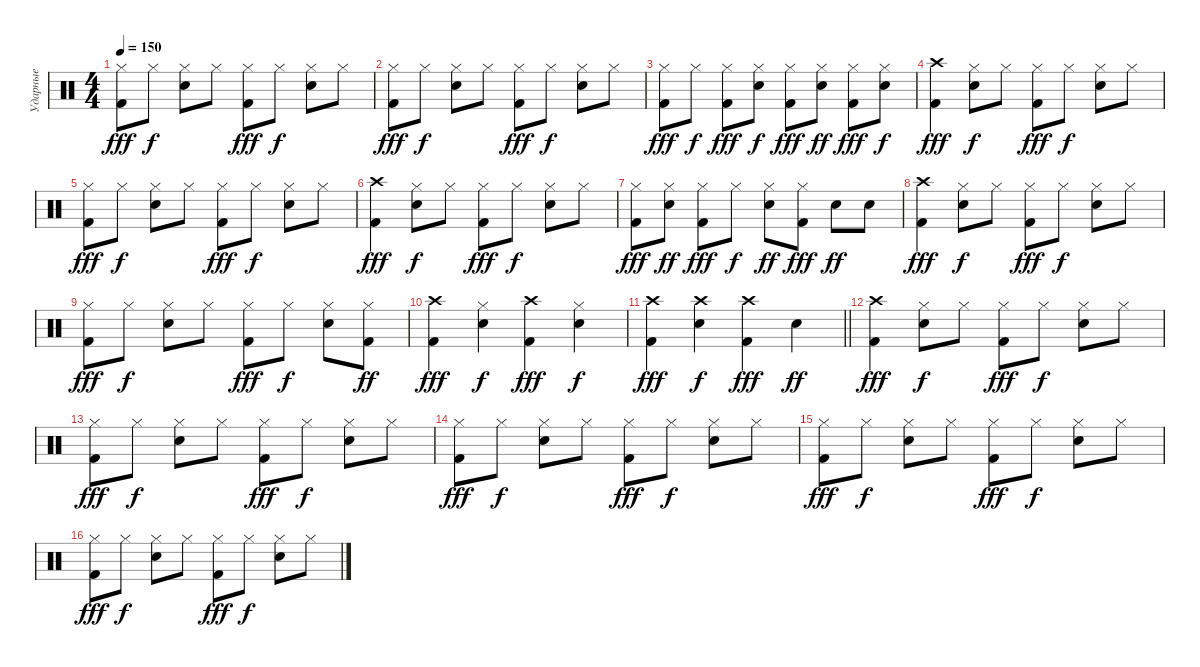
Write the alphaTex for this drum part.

\track ("Ударные" "Ударные") {instrument percussion}
\staff
\articulation defaults
\ts (4 4)
\tempo 150
\clef neutral
\ks c
("Kick (hit) 2" "Hi-Hat (closed)").8{dy fff} "Hi-Hat (closed)".8{dy f} ("Snare (hit) 2" "Hi-Hat (closed)").8 "Hi-Hat (closed)".8 ("Kick (hit) 2" "Hi-Hat (closed)").8{dy fff} "Hi-Hat (closed)".8{dy f} ("Snare (hit) 2" "Hi-Hat (closed)").8 "Hi-Hat (closed)".8 |
("Kick (hit) 2" "Hi-Hat (closed)").8{dy fff} "Hi-Hat (closed)".8{dy f} ("Snare (hit) 2" "Hi-Hat (closed)").8 "Hi-Hat (closed)".8 ("Kick (hit) 2" "Hi-Hat (closed)").8{dy fff} "Hi-Hat (closed)".8{dy f} ("Snare (hit) 2" "Hi-Hat (closed)").8 "Hi-Hat (closed)".8 |
("Kick (hit) 2" "Hi-Hat (closed)").8{dy fff} "Hi-Hat (closed)".8{dy f} ("Kick (hit) 2" "Hi-Hat (closed)").8{dy fff} ("Snare (hit) 2" "Hi-Hat (closed)").8{dy f} ("Kick (hit) 2" "Hi-Hat (closed)").8{dy fff} ("Snare (hit) 2" "Hi-Hat (closed)").8{dy ff} ("Kick (hit) 2" "Hi-Hat (closed)").8{dy fff} ("Snare (hit) 2" "Hi-Hat (closed)").8{dy f} |
("Kick (hit) 2" "Crash high (hit)").4{dy fff} ("Snare (hit) 2" "Hi-Hat (closed)").8{dy f} "Hi-Hat (closed)".8 ("Kick (hit) 2" "Hi-Hat (closed)").8{dy fff} "Hi-Hat (closed)".8{dy f} ("Snare (hit) 2" "Hi-Hat (closed)").8 "Hi-Hat (closed)".8 |
("Kick (hit) 2" "Hi-Hat (closed)").8{dy fff} "Hi-Hat (closed)".8{dy f} ("Snare (hit) 2" "Hi-Hat (closed)").8 "Hi-Hat (closed)".8 ("Kick (hit) 2" "Hi-Hat (closed)").8{dy fff} "Hi-Hat (closed)".8{dy f} ("Snare (hit) 2" "Hi-Hat (closed)").8 "Hi-Hat (closed)".8 |
("Kick (hit) 2" "Crash high (hit)").4{dy fff} ("Snare (hit) 2" "Hi-Hat (closed)").8{dy f} "Hi-Hat (closed)".8 ("Kick (hit) 2" "Hi-Hat (closed)").8{dy fff} "Hi-Hat (closed)".8{dy f} ("Snare (hit) 2" "Hi-Hat (closed)").8 "Hi-Hat (closed)".8 |
("Kick (hit) 2" "Hi-Hat (closed)").8{dy fff} ("Snare (hit) 2" "Hi-Hat (closed)").8{dy ff} ("Kick (hit) 2" "Hi-Hat (closed)").8{dy fff} "Hi-Hat (closed)".8{dy f} ("Snare (hit) 2" "Hi-Hat (closed)").8{dy ff} ("Kick (hit) 2" "Hi-Hat (closed)").8{dy fff} "Snare (hit) 2".8{dy ff} "Snare (hit) 2".8 |
("Kick (hit) 2" "Crash high (hit)").4{dy fff} ("Snare (hit) 2" "Hi-Hat (closed)").8{dy f} "Hi-Hat (closed)".8 ("Kick (hit) 2" "Hi-Hat (closed)").8{dy fff} "Hi-Hat (closed)".8{dy f} ("Snare (hit) 2" "Hi-Hat (closed)").8 "Hi-Hat (closed)".8 |
("Kick (hit) 2" "Hi-Hat (closed)").8{dy fff} "Hi-Hat (closed)".8{dy f} ("Snare (hit) 2" "Hi-Hat (closed)").8 "Hi-Hat (closed)".8 ("Kick (hit) 2" "Hi-Hat (closed)").8{dy fff} "Hi-Hat (closed)".8{dy f} ("Snare (hit) 2" "Hi-Hat (closed)").8 ("Kick (hit) 2" "Hi-Hat (closed)").8{dy ff} |
("Kick (hit) 2" "Crash high (hit)").4{dy fff} ("Snare (hit) 2" "Hi-Hat (closed)").4{dy f} ("Kick (hit) 2" "Crash high (hit)").4{dy fff} ("Snare (hit) 2" "Hi-Hat (closed)").4{dy f} |
\barLineRight lightlight
("Kick (hit) 2" "Crash high (hit)").4{dy fff} ("Snare (hit) 2" "Crash high (hit)").4{dy f} ("Kick (hit) 2" "Crash high (hit)").4{dy fff} "Snare (hit) 2".4{dy ff} |
("Kick (hit) 2" "Crash high (hit)").4{dy fff} ("Snare (hit) 2" "Hi-Hat (closed)").8{dy f} "Hi-Hat (closed)".8 ("Kick (hit) 2" "Hi-Hat (closed)").8{dy fff} "Hi-Hat (closed)".8{dy f} ("Snare (hit) 2" "Hi-Hat (closed)").8 "Hi-Hat (closed)".8 |
("Kick (hit) 2" "Hi-Hat (closed)").8{dy fff} "Hi-Hat (closed)".8{dy f} ("Snare (hit) 2" "Hi-Hat (closed)").8 "Hi-Hat (closed)".8 ("Kick (hit) 2" "Hi-Hat (closed)").8{dy fff} "Hi-Hat (closed)".8{dy f} ("Snare (hit) 2" "Hi-Hat (closed)").8 "Hi-Hat (closed)".8 |
("Kick (hit) 2" "Hi-Hat (closed)").8{dy fff} "Hi-Hat (closed)".8{dy f} ("Snare (hit) 2" "Hi-Hat (closed)").8 "Hi-Hat (closed)".8 ("Kick (hit) 2" "Hi-Hat (closed)").8{dy fff} "Hi-Hat (closed)".8{dy f} ("Snare (hit) 2" "Hi-Hat (closed)").8 "Hi-Hat (closed)".8 |
("Kick (hit) 2" "Hi-Hat (closed)").8{dy fff} "Hi-Hat (closed)".8{dy f} ("Snare (hit) 2" "Hi-Hat (closed)").8 "Hi-Hat (closed)".8 ("Kick (hit) 2" "Hi-Hat (closed)").8{dy fff} "Hi-Hat (closed)".8{dy f} ("Snare (hit) 2" "Hi-Hat (closed)").8 "Hi-Hat (closed)".8 |
("Kick (hit) 2" "Hi-Hat (closed)").8{dy fff} "Hi-Hat (closed)".8{dy f} ("Snare (hit) 2" "Hi-Hat (closed)").8 "Hi-Hat (closed)".8 ("Kick (hit) 2" "Hi-Hat (closed)").8{dy fff} "Hi-Hat (closed)".8{dy f} ("Snare (hit) 2" "Hi-Hat (closed)").8 "Hi-Hat (closed)".8
